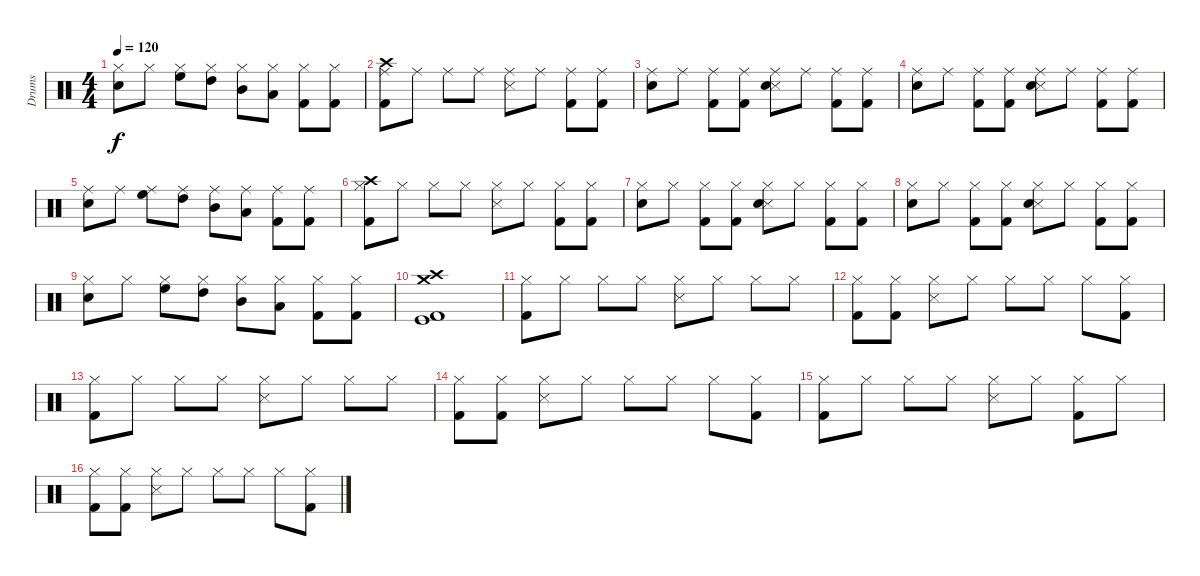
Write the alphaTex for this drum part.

\track ("Drums" "Drums") {instrument percussion}
\staff {score}
\articulation defaults
\ts (4 4)
\tempo 120
\clef neutral
\ks c
("Hi-Hat (closed)" "Electric Snare (hit)").8{dy f} "Hi-Hat (closed)".8 ("Hi-Hat (closed)" "High Floor Tom (hit)").8 ("Hi-Hat (closed)" "High Tom (hit)").8 ("Hi-Hat (closed)" "Mid Tom (hit)").8 ("Hi-Hat (closed)" "Low Tom (hit)").8 ("Hi-Hat (closed)" "Kick (hit) 2").8 ("Hi-Hat (closed)" "Kick (hit) 2").8 |
("Ride (middle)" "Kick (hit) 2" "Crash high (hit)").8 "Ride (middle)".8 "Ride (middle)".8 "Ride (middle)".8 ("Ride (middle)" "Snare (side stick) 3").8 "Ride (middle)".8 ("Ride (middle)" "Kick (hit) 2").8 ("Ride (middle)" "Kick (hit) 2").8 |
("Ride (middle)" "Electric Snare (hit)").8 "Ride (middle)".8 ("Ride (middle)" "Kick (hit) 2").8 ("Ride (middle)" "Kick (hit) 2").8 ("Ride (middle)" "Snare (side stick) 3" "Snare (hit) 2").8 "Ride (middle)".8 ("Ride (middle)" "Kick (hit) 2").8 ("Ride (middle)" "Kick (hit) 2").8 |
("Ride (middle)" "Electric Snare (hit)").8 "Ride (middle)".8 ("Ride (middle)" "Kick (hit) 2").8 ("Ride (middle)" "Kick (hit) 2").8 ("Ride (middle)" "Snare (side stick) 3" "Snare (hit) 2").8 "Ride (middle)".8 ("Ride (middle)" "Kick (hit) 2").8 ("Ride (middle)" "Kick (hit) 2").8 |
("Ride (middle)" "Electric Snare (hit)").8 "Ride (middle)".8 ("Ride (middle)" "High Floor Tom (hit)").8 ("Ride (middle)" "High Tom (hit)").8 ("Ride (middle)" "Mid Tom (hit)").8 ("Ride (middle)" "Low Tom (hit)").8 ("Ride (middle)" "Kick (hit) 2").8 ("Ride (middle)" "Kick (hit) 2").8 |
("Hi-Hat (closed)" "Kick (hit) 2" "Crash high (hit)").8 "Hi-Hat (closed)".8 "Hi-Hat (closed)".8 "Hi-Hat (closed)".8 ("Hi-Hat (closed)" "Snare (side stick) 3").8 "Hi-Hat (closed)".8 ("Hi-Hat (closed)" "Kick (hit) 2").8 ("Hi-Hat (closed)" "Kick (hit) 2").8 |
("Hi-Hat (closed)" "Electric Snare (hit)").8 "Hi-Hat (closed)".8 ("Hi-Hat (closed)" "Kick (hit) 2").8 ("Hi-Hat (closed)" "Kick (hit) 2").8 ("Hi-Hat (closed)" "Snare (side stick) 3" "Snare (hit) 2").8 "Hi-Hat (closed)".8 ("Hi-Hat (closed)" "Kick (hit) 2").8 ("Hi-Hat (closed)" "Kick (hit) 2").8 |
("Hi-Hat (closed)" "Electric Snare (hit)").8 "Hi-Hat (closed)".8 ("Hi-Hat (closed)" "Kick (hit) 2").8 ("Hi-Hat (closed)" "Kick (hit) 2").8 ("Hi-Hat (closed)" "Snare (side stick) 3" "Snare (hit) 2").8 "Hi-Hat (closed)".8 ("Hi-Hat (closed)" "Kick (hit) 2").8 ("Hi-Hat (closed)" "Kick (hit) 2").8 |
("Hi-Hat (closed)" "Electric Snare (hit)").8 "Hi-Hat (closed)".8 ("Hi-Hat (closed)" "High Floor Tom (hit)").8 ("Hi-Hat (closed)" "High Tom (hit)").8 ("Hi-Hat (closed)" "Mid Tom (hit)").8 ("Hi-Hat (closed)" "Low Tom (hit)").8 ("Hi-Hat (closed)" "Kick (hit) 2").8 ("Hi-Hat (closed)" "Kick (hit) 2").8 |
("Crash high (hit)" "Kick (hit)" "Kick (hit) 2" "Crash medium (hit)").1 |
("Hi-Hat (closed)" "Kick (hit) 2").8 "Hi-Hat (closed)".8 "Hi-Hat (closed)".8 "Hi-Hat (closed)".8 ("Hi-Hat (closed)" "Snare (side stick) 3").8 "Hi-Hat (closed)".8 "Hi-Hat (closed)".8 "Hi-Hat (closed)".8 |
("Hi-Hat (closed)" "Kick (hit) 2").8 ("Hi-Hat (closed)" "Kick (hit) 2").8 ("Hi-Hat (closed)" "Snare (side stick) 3").8 "Hi-Hat (closed)".8 "Hi-Hat (closed)".8 "Hi-Hat (closed)".8 "Hi-Hat (closed)".8 ("Hi-Hat (closed)" "Kick (hit) 2").8 |
("Hi-Hat (closed)" "Kick (hit) 2").8 "Hi-Hat (closed)".8 "Hi-Hat (closed)".8 "Hi-Hat (closed)".8 ("Hi-Hat (closed)" "Snare (side stick) 3").8 "Hi-Hat (closed)".8 "Hi-Hat (closed)".8 "Hi-Hat (closed)".8 |
("Hi-Hat (closed)" "Kick (hit) 2").8 ("Hi-Hat (closed)" "Kick (hit) 2").8 ("Hi-Hat (closed)" "Snare (side stick) 3").8 "Hi-Hat (closed)".8 "Hi-Hat (closed)".8 "Hi-Hat (closed)".8 "Hi-Hat (closed)".8 ("Hi-Hat (closed)" "Kick (hit) 2").8 |
("Hi-Hat (closed)" "Kick (hit) 2").8 "Hi-Hat (closed)".8 "Hi-Hat (closed)".8 "Hi-Hat (closed)".8 ("Hi-Hat (closed)" "Snare (side stick) 3").8 "Hi-Hat (closed)".8 ("Hi-Hat (closed)" "Kick (hit) 2").8 "Hi-Hat (closed)".8 |
("Hi-Hat (closed)" "Kick (hit) 2").8 ("Hi-Hat (closed)" "Kick (hit) 2").8 ("Hi-Hat (closed)" "Snare (side stick) 3").8 "Hi-Hat (closed)".8 "Hi-Hat (closed)".8 "Hi-Hat (closed)".8 "Hi-Hat (closed)".8 ("Hi-Hat (closed)" "Kick (hit) 2").8
